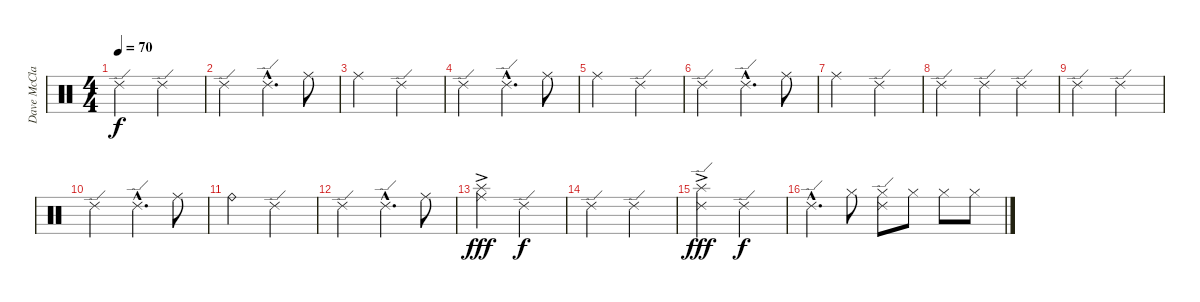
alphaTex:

\track ("Dave McClain" "Dave McCla") {instrument percussion}
\staff {score}
\articulation defaults
\ts (4 4)
\tempo 70
\clef neutral
\ks c "Ride (edge) 2".2{dy f volume 9} "Ride (edge) 2".2
|
"Ride (edge) 2".2 "Ride (edge) 2"{hac}.4{d} "Ride (middle)".8 |
"Ride (middle)".2 "Ride (edge) 2".2 |
"Ride (edge) 2".2 "Ride (edge) 2"{hac}.4{d} "Ride (middle)".8 |
"Ride (middle)".2 "Ride (edge) 2".2 |
"Ride (edge) 2".2 "Ride (edge) 2"{hac}.4{d} "Ride (middle)".8 |
"Ride (middle)".2 "Ride (edge) 2".2 |
"Ride (edge) 2".2 "Ride (edge) 2".4 "Ride (edge) 2".4 |
"Ride (edge) 2".2 "Ride (edge) 2".2 |
"Ride (edge) 2".2 "Ride (edge) 2"{hac}.4{d} "Ride (middle)".8 |
"Ride (bell)".2 "Ride (edge) 2".2 |
"Ride (edge) 2".2 "Ride (edge) 2"{hac}.4{d} "Ride (middle)".8 |
("Splash (hit)"{ac} "Ride (middle)").2{dy fff} "Ride (edge) 2".2{dy f} |
"Ride (edge) 2".2 "Ride (edge) 2".2 |
("Splash (hit)"{ac} "Ride (edge) 2").2{dy fff} "Ride (edge) 2".2{dy f} |
"Ride (edge) 2"{hac}.4{d} "Hi-Hat (closed)".8 ("Hi-Hat (closed)" "Ride (edge) 2").8 "Hi-Hat (closed)".8 "Hi-Hat (closed)".8 "Hi-Hat (closed)".8
